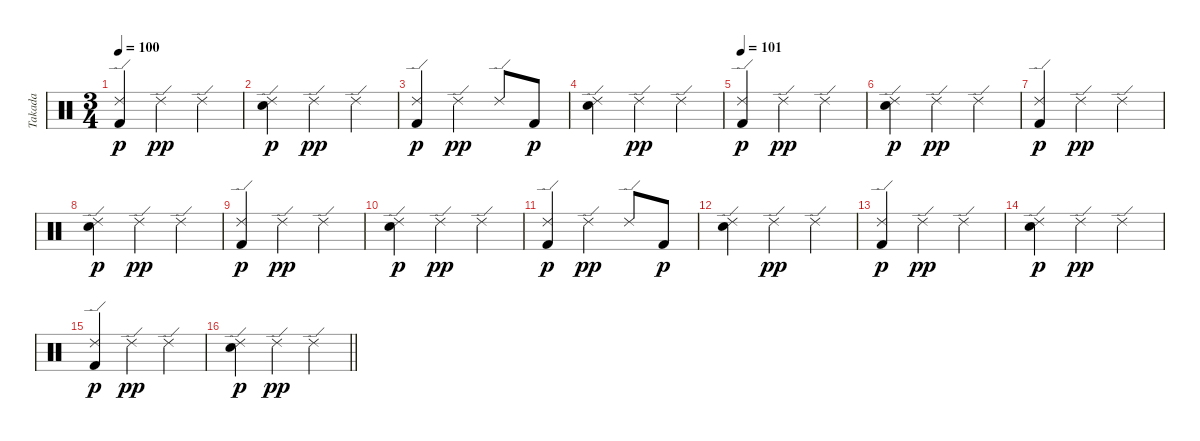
\track ("Takada" "Takada") {instrument percussion}
\staff {score}
\articulation defaults
\ts (3 4)
\tempo 100
\clef neutral
\ks c
("Ride (edge) 2" "Kick (hit) 2").4{dy p} "Ride (edge) 2".4{dy pp} "Ride (edge) 2".4 |
("Ride (edge) 2" "Electric Snare (hit)").4{dy p} "Ride (edge) 2".4{dy pp} "Ride (edge) 2".4 |
("Ride (edge) 2" "Kick (hit) 2").4{dy p} "Ride (edge) 2".4{dy pp} "Ride (edge) 2".8 "Kick (hit) 2".8{dy p} |
("Ride (edge) 2" "Electric Snare (hit)").4 "Ride (edge) 2".4{dy pp} "Ride (edge) 2".4 |
\tempo 101
("Ride (edge) 2" "Kick (hit) 2").4{dy p} "Ride (edge) 2".4{dy pp} "Ride (edge) 2".4 |
("Ride (edge) 2" "Electric Snare (hit)").4{dy p} "Ride (edge) 2".4{dy pp} "Ride (edge) 2".4 |
("Ride (edge) 2" "Kick (hit) 2").4{dy p} "Ride (edge) 2".4{dy pp} "Ride (edge) 2".4 |
("Ride (edge) 2" "Electric Snare (hit)").4{dy p} "Ride (edge) 2".4{dy pp} "Ride (edge) 2".4 |
("Ride (edge) 2" "Kick (hit) 2").4{dy p} "Ride (edge) 2".4{dy pp} "Ride (edge) 2".4 |
("Ride (edge) 2" "Electric Snare (hit)").4{dy p} "Ride (edge) 2".4{dy pp} "Ride (edge) 2".4 |
("Ride (edge) 2" "Kick (hit) 2").4{dy p} "Ride (edge) 2".4{dy pp} "Ride (edge) 2".8 "Kick (hit) 2".8{dy p} |
("Ride (edge) 2" "Electric Snare (hit)").4 "Ride (edge) 2".4{dy pp} "Ride (edge) 2".4 |
("Ride (edge) 2" "Kick (hit) 2").4{dy p} "Ride (edge) 2".4{dy pp} "Ride (edge) 2".4 |
("Ride (edge) 2" "Electric Snare (hit)").4{dy p} "Ride (edge) 2".4{dy pp} "Ride (edge) 2".4 |
("Ride (edge) 2" "Kick (hit) 2").4{dy p} "Ride (edge) 2".4{dy pp} "Ride (edge) 2".4 |
\barLineRight lightlight
("Ride (edge) 2" "Electric Snare (hit)").4{dy p} "Ride (edge) 2".4{dy pp} "Ride (edge) 2".4
